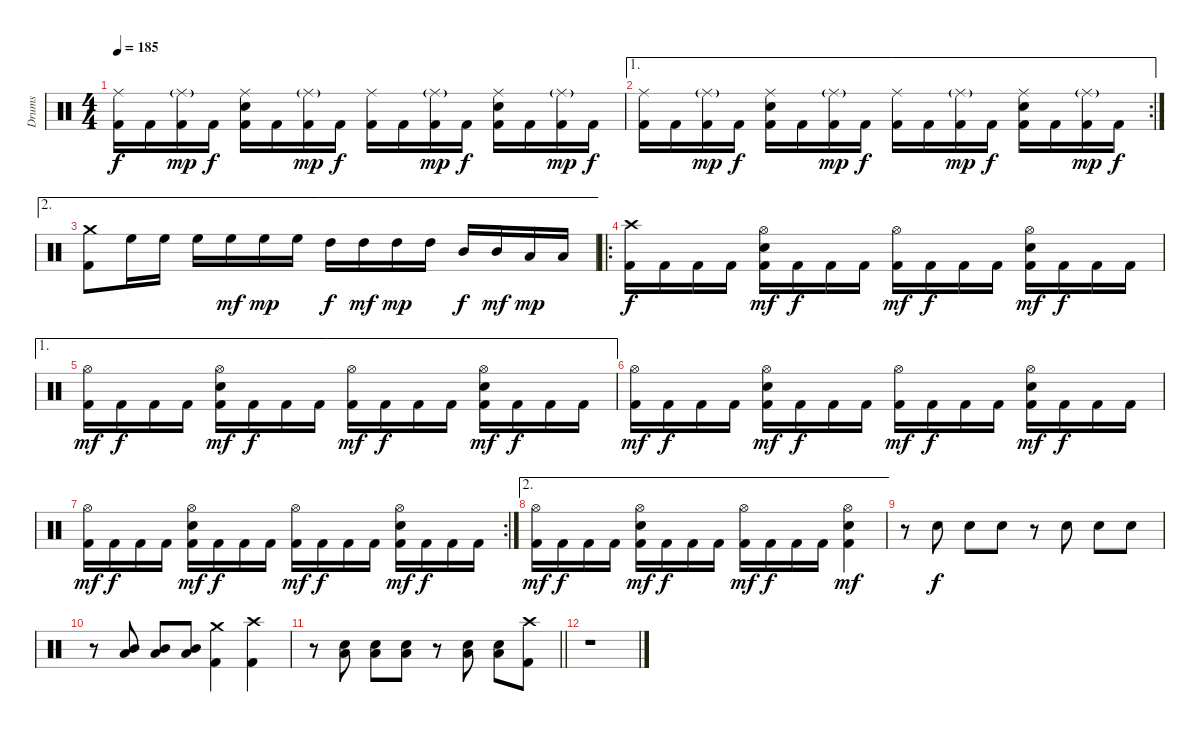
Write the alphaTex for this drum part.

\track ("Drums" "Drums") {instrument percussion}
\staff {score}
\articulation defaults
\ts (4 4)
\tempo 185
\clef neutral
\ks c
("Ride (middle)" "Kick (hit) 2").16{dy f} "Kick (hit) 2".16 ("Ride (middle)"{g} "Kick (hit) 2").16{dy mp} "Kick (hit) 2".16{dy f} ("Ride (middle)" "Electric Snare (hit)" "Kick (hit) 2").16 "Kick (hit) 2".16 ("Ride (middle)"{g} "Kick (hit) 2").16{dy mp} "Kick (hit) 2".16{dy f} ("Ride (middle)" "Kick (hit) 2").16 "Kick (hit) 2".16 ("Ride (middle)"{g} "Kick (hit) 2").16{dy mp} "Kick (hit) 2".16{dy f} ("Ride (middle)" "Electric Snare (hit)" "Kick (hit) 2").16 "Kick (hit) 2".16 ("Ride (middle)"{g} "Kick (hit) 2").16{dy mp} "Kick (hit) 2".16{dy f} |
\ae 1
\rc 2
("Ride (middle)" "Kick (hit) 2").16 "Kick (hit) 2".16 ("Ride (middle)"{g} "Kick (hit) 2").16{dy mp} "Kick (hit) 2".16{dy f} ("Ride (middle)" "Electric Snare (hit)" "Kick (hit) 2").16 "Kick (hit) 2".16 ("Ride (middle)"{g} "Kick (hit) 2").16{dy mp} "Kick (hit) 2".16{dy f} ("Ride (middle)" "Kick (hit) 2").16 "Kick (hit) 2".16 ("Ride (middle)"{g} "Kick (hit) 2").16{dy mp} "Kick (hit) 2".16{dy f} ("Ride (middle)" "Electric Snare (hit)" "Kick (hit) 2").16 "Kick (hit) 2".16 ("Ride (middle)"{g} "Kick (hit) 2").16{dy mp} "Kick (hit) 2".16{dy f} |
\ae 2
("Crash medium (hit)" "Kick (hit) 2").8 "High Floor Tom (hit)".16 "High Floor Tom (hit)".16 "High Floor Tom (hit)".16 "High Floor Tom (hit)".16{dy mf} "High Floor Tom (hit)".16{dy mp} "High Floor Tom (hit)".16 "High Tom (hit)".16{dy f} "High Tom (hit)".16{dy mf} "High Tom (hit)".16{dy mp} "High Tom (hit)".16 "Mid Tom (hit)".16{dy f} "Mid Tom (hit)".16{dy mf} "Low Tom (hit)".16{dy mp} "Low Tom (hit)".16 |
\ro
("Crash high (hit)" "Kick (hit) 2").16{dy f} "Kick (hit) 2".16 "Kick (hit) 2".16 "Kick (hit) 2".16 ("Hi-Hat (open)" "Electric Snare (hit)" "Kick (hit) 2").16{dy mf} "Kick (hit) 2".16{dy f} "Kick (hit) 2".16 "Kick (hit) 2".16 ("Hi-Hat (open)" "Kick (hit) 2").16{dy mf} "Kick (hit) 2".16{dy f} "Kick (hit) 2".16 "Kick (hit) 2".16 ("Hi-Hat (open)" "Electric Snare (hit)" "Kick (hit) 2").16{dy mf} "Kick (hit) 2".16{dy f} "Kick (hit) 2".16 "Kick (hit) 2".16 |
\ae 1
("Hi-Hat (open)" "Kick (hit) 2").16{dy mf} "Kick (hit) 2".16{dy f} "Kick (hit) 2".16 "Kick (hit) 2".16 ("Hi-Hat (open)" "Electric Snare (hit)" "Kick (hit) 2").16{dy mf} "Kick (hit) 2".16{dy f} "Kick (hit) 2".16 "Kick (hit) 2".16 ("Hi-Hat (open)" "Kick (hit) 2").16{dy mf} "Kick (hit) 2".16{dy f} "Kick (hit) 2".16 "Kick (hit) 2".16 ("Hi-Hat (open)" "Electric Snare (hit)" "Kick (hit) 2").16{dy mf} "Kick (hit) 2".16{dy f} "Kick (hit) 2".16 "Kick (hit) 2".16 |
("Hi-Hat (open)" "Kick (hit) 2").16{dy mf} "Kick (hit) 2".16{dy f} "Kick (hit) 2".16 "Kick (hit) 2".16 ("Hi-Hat (open)" "Electric Snare (hit)" "Kick (hit) 2").16{dy mf} "Kick (hit) 2".16{dy f} "Kick (hit) 2".16 "Kick (hit) 2".16 ("Hi-Hat (open)" "Kick (hit) 2").16{dy mf} "Kick (hit) 2".16{dy f} "Kick (hit) 2".16 "Kick (hit) 2".16 ("Hi-Hat (open)" "Electric Snare (hit)" "Kick (hit) 2").16{dy mf} "Kick (hit) 2".16{dy f} "Kick (hit) 2".16 "Kick (hit) 2".16 |
\rc 2
("Hi-Hat (open)" "Kick (hit) 2").16{dy mf} "Kick (hit) 2".16{dy f} "Kick (hit) 2".16 "Kick (hit) 2".16 ("Hi-Hat (open)" "Electric Snare (hit)" "Kick (hit) 2").16{dy mf} "Kick (hit) 2".16{dy f} "Kick (hit) 2".16 "Kick (hit) 2".16 ("Hi-Hat (open)" "Kick (hit) 2").16{dy mf} "Kick (hit) 2".16{dy f} "Kick (hit) 2".16 "Kick (hit) 2".16 ("Hi-Hat (open)" "Electric Snare (hit)" "Kick (hit) 2").16{dy mf} "Kick (hit) 2".16{dy f} "Kick (hit) 2".16 "Kick (hit) 2".16 |
\ae 2
("Hi-Hat (open)" "Kick (hit) 2").16{dy mf} "Kick (hit) 2".16{dy f} "Kick (hit) 2".16 "Kick (hit) 2".16 ("Hi-Hat (open)" "Electric Snare (hit)" "Kick (hit) 2").16{dy mf} "Kick (hit) 2".16{dy f} "Kick (hit) 2".16 "Kick (hit) 2".16 ("Hi-Hat (open)" "Kick (hit) 2").16{dy mf} "Kick (hit) 2".16{dy f} "Kick (hit) 2".16 "Kick (hit) 2".16 ("Hi-Hat (open)" "Electric Snare (hit)" "Kick (hit) 2").4{dy mf} |
r.8 "Electric Snare (hit)".8{dy f} "Electric Snare (hit)".8 "Electric Snare (hit)".8 r.8 "Electric Snare (hit)".8 "Electric Snare (hit)".8 "Electric Snare (hit)".8 |
r.8 ("Mid Tom (hit)" "Low Tom (hit)").8 ("Mid Tom (hit)" "Low Tom (hit)").8 ("Mid Tom (hit)" "Low Tom (hit)").8 ("Crash medium (hit)" "Kick (hit) 2").4 ("Crash high (hit)" "Kick (hit) 2").4 |
\barLineRight lightlight
r.8 ("Low Tom (hit)" "Electric Snare (hit)").8 ("Low Tom (hit)" "Electric Snare (hit)").8 ("Low Tom (hit)" "Electric Snare (hit)").8 r.8 ("Low Tom (hit)" "Electric Snare (hit)").8 ("Low Tom (hit)" "Electric Snare (hit)").8 ("Crash high (hit)" "Kick (hit) 2").8 |
r.1
